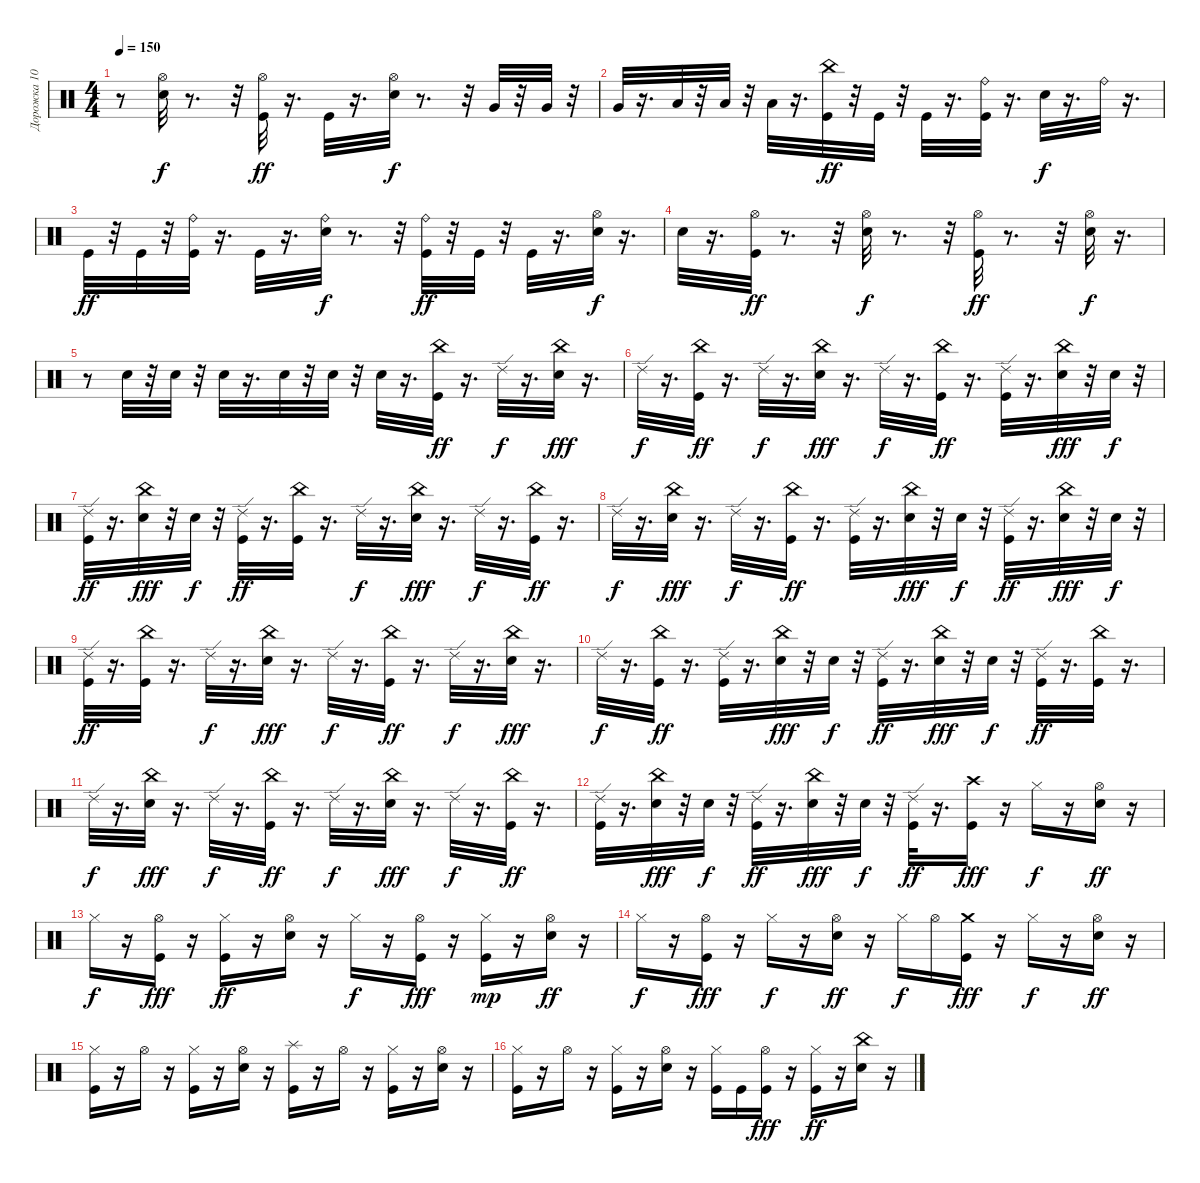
\track ("Дорожка 10" "Дорожка 10") {instrument percussion}
\staff {score}
\articulation defaults
\ts (4 4)
\tempo 150
\clef neutral
\ks c
r.8{dy ff} ("Electric Snare (hit)" "Hi-Hat (open)").32{dy f} r.8{d} r.32 ("Hi-Hat (open)" "Kick (hit)").32{dy ff} r.16{d} "Kick (hit)".32 r.16{d} ("Hi-Hat (open)" "Electric Snare (hit)").32{dy f} r.8{d} r.32 "Very Low Tom (hit)".32 r.32 "Very Low Tom (hit)".32 r.32 |
"Very Low Tom (hit)".32 r.16{d} "Low Floor Tom (hit)".32 r.32 "Low Floor Tom (hit)".32 r.32 "Low Floor Tom (hit)".32 r.16{d} ("Kick (hit)" "China (hit)").32{dy ff} r.32 "Kick (hit)".32 r.32 "Kick (hit)".32 r.16{d} ("Ride (bell)" "Kick (hit)").32 r.16{d} "Electric Snare (hit)".32{dy f} r.16{d} "Ride (bell)".32 r.16{d} |
"Kick (hit)".32{dy ff} r.32 "Kick (hit)".32 r.32 ("Kick (hit)" "Ride (bell)").32 r.16{d} "Kick (hit)".32 r.16{d} ("Ride (bell)" "Electric Snare (hit)").32{dy f} r.8{d} r.32 ("Ride (bell)" "Kick (hit)").32{dy ff} r.32 "Kick (hit)".32 r.32 "Kick (hit)".32 r.16{d} ("Electric Snare (hit)" "Hi-Hat (open)").32{dy f} r.16{d} |
"Electric Snare (hit)".32 r.16{d} ("Kick (hit)" "Hi-Hat (open)").32{dy ff} r.8{d} r.32 ("Hi-Hat (open)" "Electric Snare (hit)").32{dy f} r.8{d} r.32 ("Kick (hit)" "Hi-Hat (open)").32{dy ff} r.8{d} r.32 ("Electric Snare (hit)" "Hi-Hat (open)").32{dy f} r.16{d} |
r.8 "Electric Snare (hit)".32 r.32 "Electric Snare (hit)".32 r.32 "Electric Snare (hit)".32 r.16{d} "Electric Snare (hit)".32 r.32 "Electric Snare (hit)".32 r.32 "Electric Snare (hit)".32 r.16{d} ("China (hit)" "Kick (hit)").32{dy ff} r.16{d} "Ride (edge) 2".32{dy f} r.16{d} ("Electric Snare (hit)" "China (hit)").32{dy fff} r.16{d} |
"Ride (edge) 2".32{dy f} r.16{d} ("China (hit)" "Kick (hit)").32{dy ff} r.16{d} "Ride (edge) 2".32{dy f} r.16{d} ("Electric Snare (hit)" "China (hit)").32{dy fff} r.16{d} "Ride (edge) 2".32{dy f} r.16{d} ("China (hit)" "Kick (hit)").32{dy ff} r.16{d} ("Ride (edge) 2" "Kick (hit)").32 r.16{d} ("Electric Snare (hit)" "China (hit)").32{dy fff} r.32 "Electric Snare (hit)".32{dy f} r.32 |
("Kick (hit)" "Ride (edge) 2").32{dy ff} r.16{d} ("China (hit)" "Electric Snare (hit)").32{dy fff} r.32 "Electric Snare (hit)".32{dy f} r.32 ("Ride (edge) 2" "Kick (hit)").32{dy ff} r.16{d} ("China (hit)" "Kick (hit)").32 r.16{d} "Ride (edge) 2".32{dy f} r.16{d} ("Electric Snare (hit)" "China (hit)").32{dy fff} r.16{d} "Ride (edge) 2".32{dy f} r.16{d} ("China (hit)" "Kick (hit)").32{dy ff} r.16{d} |
"Ride (edge) 2".32{dy f} r.16{d} ("Electric Snare (hit)" "China (hit)").32{dy fff} r.16{d} "Ride (edge) 2".32{dy f} r.16{d} ("China (hit)" "Kick (hit)").32{dy ff} r.16{d} ("Ride (edge) 2" "Kick (hit)").32 r.16{d} ("Electric Snare (hit)" "China (hit)").32{dy fff} r.32 "Electric Snare (hit)".32{dy f} r.32 ("Kick (hit)" "Ride (edge) 2").32{dy ff} r.16{d} ("China (hit)" "Electric Snare (hit)").32{dy fff} r.32 "Electric Snare (hit)".32{dy f} r.32 |
("Ride (edge) 2" "Kick (hit)").32{dy ff} r.16{d} ("China (hit)" "Kick (hit)").32 r.16{d} "Ride (edge) 2".32{dy f} r.16{d} ("Electric Snare (hit)" "China (hit)").32{dy fff} r.16{d} "Ride (edge) 2".32{dy f} r.16{d} ("China (hit)" "Kick (hit)").32{dy ff} r.16{d} "Ride (edge) 2".32{dy f} r.16{d} ("Electric Snare (hit)" "China (hit)").32{dy fff} r.16{d} |
"Ride (edge) 2".32{dy f} r.16{d} ("China (hit)" "Kick (hit)").32{dy ff} r.16{d} ("Ride (edge) 2" "Kick (hit)").32 r.16{d} ("Electric Snare (hit)" "China (hit)").32{dy fff} r.32 "Electric Snare (hit)".32{dy f} r.32 ("Kick (hit)" "Ride (edge) 2").32{dy ff} r.16{d} ("China (hit)" "Electric Snare (hit)").32{dy fff} r.32 "Electric Snare (hit)".32{dy f} r.32 ("Ride (edge) 2" "Kick (hit)").32{dy ff} r.16{d} ("China (hit)" "Kick (hit)").32 r.16{d} |
"Ride (edge) 2".32{dy f} r.16{d} ("Electric Snare (hit)" "China (hit)").32{dy fff} r.16{d} "Ride (edge) 2".32{dy f} r.16{d} ("China (hit)" "Kick (hit)").32{dy ff} r.16{d} "Ride (edge) 2".32{dy f} r.16{d} ("Electric Snare (hit)" "China (hit)").32{dy fff} r.16{d} "Ride (edge) 2".32{dy f} r.16{d} ("China (hit)" "Kick (hit)").32{dy ff} r.16{d} |
("Ride (edge) 2" "Kick (hit)").32 r.16{d} ("Electric Snare (hit)" "China (hit)").32{dy fff} r.32 "Electric Snare (hit)".32{dy f} r.32 ("Kick (hit)" "Ride (edge) 2").32{dy ff} r.16{d} ("China (hit)" "Electric Snare (hit)").32{dy fff} r.32 "Electric Snare (hit)".32{dy f} r.32 ("Ride (edge) 2" "Kick (hit)").32{dy ff} r.16{d} ("Crash high (hit)" "Kick (hit)").16{dy fff} r.16 "Hi-Hat (closed)".16{dy f} r.16 ("Electric Snare (hit)" "Hi-Hat (open)").16{dy ff} r.16 |
"Hi-Hat (closed)".16{dy f} r.16 ("Hi-Hat (open)" "Kick (hit)").16{dy fff} r.16 ("Kick (hit)" "Hi-Hat (closed)").16{dy ff} r.16 ("Hi-Hat (open)" "Electric Snare (hit)").16 r.16 "Hi-Hat (closed)".16{dy f} r.16 ("Hi-Hat (open)" "Kick (hit)").16{dy fff} r.16 ("Kick (hit)" "Hi-Hat (closed)").16{dy mp} r.16 ("Electric Snare (hit)" "Hi-Hat (open)").16{dy ff} r.16 |
"Hi-Hat (closed)".16{dy f} r.16 ("Hi-Hat (open)" "Kick (hit)").16{dy fff} r.16 "Hi-Hat (closed)".16{dy f} r.16 ("Electric Snare (hit)" "Hi-Hat (open)").16{dy ff} r.16 "Hi-Hat (closed)".16{dy f} "Hi-Hat (open)".16 ("Crash medium (hit)" "Kick (hit)").16{dy fff} r.16 "Hi-Hat (closed)".16{dy f} r.16 ("Electric Snare (hit)" "Hi-Hat (open)").16{dy ff} r.16 |
("Kick (hit)" "Hi-Hat (closed)").16 r.16 "Hi-Hat (open)".16 r.16 ("Kick (hit)" "Hi-Hat (closed)").16 r.16 ("Electric Snare (hit)" "Hi-Hat (open)").16 r.16 ("Splash (hit)" "Kick (hit)").16 r.16 "Hi-Hat (open)".16 r.16 ("Hi-Hat (closed)" "Kick (hit)").16 r.16 ("Hi-Hat (open)" "Electric Snare (hit)").16 r.16 |
("Kick (hit)" "Hi-Hat (closed)").16 r.16 "Hi-Hat (open)".16 r.16 ("Hi-Hat (closed)" "Kick (hit)").16 r.16 ("Electric Snare (hit)" "Hi-Hat (open)").16 r.16 ("Hi-Hat (closed)" "Kick (hit)").16 "Kick (hit)".16 ("Hi-Hat (open)" "Kick (hit)").16{dy fff} r.16 ("Kick (hit)" "Hi-Hat (closed)").16{dy ff} r.16 ("China (hit)" "Electric Snare (hit)").16 r.16
